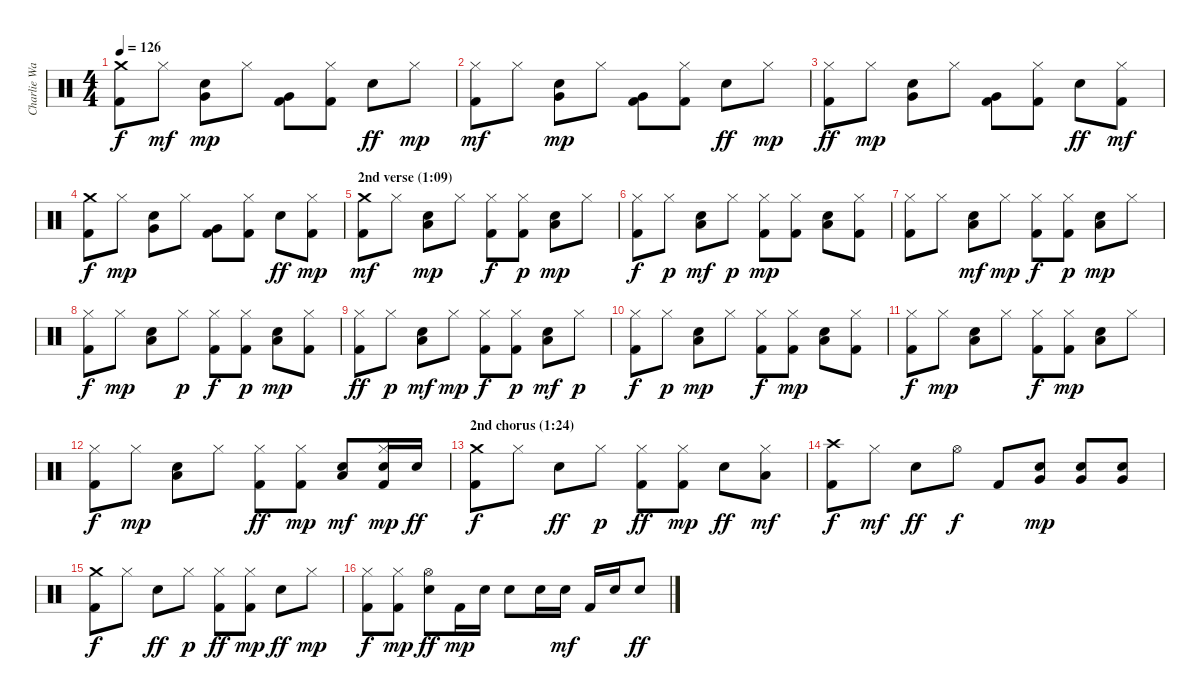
\track ("Charlie Watts" "Charlie Wa") {instrument percussion}
\staff {score}
\articulation defaults
\ts (4 4)
\tempo 126
\clef neutral
\ks c
("Kick (hit) 2" "Crash medium (hit)").8{dy f} "Hi-Hat (closed)".8{dy mf} ("Electric Snare (hit)" "Very Low Tom (hit)").8{dy mp} "Hi-Hat (closed)".8 ("Kick (hit) 2" "Very Low Tom (hit)").8 ("Kick (hit) 2" "Hi-Hat (closed)").8 "Electric Snare (hit)".8{dy ff} "Hi-Hat (closed)".8{dy mp} |
("Kick (hit) 2" "Hi-Hat (closed)").8{dy mf} "Hi-Hat (closed)".8 ("Electric Snare (hit)" "Very Low Tom (hit)").8{dy mp} "Hi-Hat (closed)".8 ("Kick (hit) 2" "Very Low Tom (hit)").8 ("Kick (hit) 2" "Hi-Hat (closed)").8 "Electric Snare (hit)".8{dy ff} "Hi-Hat (closed)".8{dy mp} |
("Kick (hit) 2" "Hi-Hat (closed)").8{dy ff} "Hi-Hat (closed)".8{dy mp} ("Electric Snare (hit)" "Very Low Tom (hit)").8 "Hi-Hat (closed)".8 ("Kick (hit) 2" "Very Low Tom (hit)").8 ("Kick (hit) 2" "Hi-Hat (closed)").8 "Electric Snare (hit)".8{dy ff} ("Kick (hit) 2" "Hi-Hat (closed)").8{dy mf} |
("Kick (hit) 2" "Crash medium (hit)").8{dy f} "Hi-Hat (closed)".8{dy mp} ("Electric Snare (hit)" "Very Low Tom (hit)").8 "Hi-Hat (closed)".8 ("Kick (hit) 2" "Very Low Tom (hit)").8 ("Kick (hit) 2" "Hi-Hat (closed)").8 "Electric Snare (hit)".8{dy ff} ("Kick (hit) 2" "Hi-Hat (closed)").8{dy mp} |
\section ("" "2nd verse (1:09)")
("Kick (hit) 2" "Crash medium (hit)").8{dy mf} "Hi-Hat (closed)".8 ("Electric Snare (hit)" "Low Tom (hit)").8{dy mp} "Hi-Hat (closed)".8 ("Kick (hit) 2" "Hi-Hat (closed)").8{dy f} ("Kick (hit) 2" "Hi-Hat (closed)").8{dy p} ("Electric Snare (hit)" "Low Tom (hit)").8{dy mp} "Hi-Hat (closed)".8 |
("Kick (hit) 2" "Hi-Hat (closed)").8{dy f} "Hi-Hat (closed)".8{dy p} ("Electric Snare (hit)" "Low Tom (hit)").8{dy mf} "Hi-Hat (closed)".8{dy p} ("Kick (hit) 2" "Hi-Hat (closed)").8{dy mp} ("Kick (hit) 2" "Hi-Hat (closed)").8 ("Electric Snare (hit)" "Low Tom (hit)").8 ("Kick (hit) 2" "Hi-Hat (closed)").8 |
("Kick (hit) 2" "Hi-Hat (closed)").8 "Hi-Hat (closed)".8 ("Electric Snare (hit)" "Low Tom (hit)").8{dy mf} "Hi-Hat (closed)".8{dy mp} ("Kick (hit) 2" "Hi-Hat (closed)").8{dy f} ("Kick (hit) 2" "Hi-Hat (closed)").8{dy p} ("Electric Snare (hit)" "Low Tom (hit)").8{dy mp} "Hi-Hat (closed)".8 |
("Kick (hit) 2" "Hi-Hat (closed)").8{dy f} "Hi-Hat (closed)".8{dy mp} ("Electric Snare (hit)" "Low Tom (hit)").8 "Hi-Hat (closed)".8{dy p} ("Kick (hit) 2" "Hi-Hat (closed)").8{dy f} ("Kick (hit) 2" "Hi-Hat (closed)").8{dy p} ("Electric Snare (hit)" "Low Tom (hit)").8{dy mp} ("Kick (hit) 2" "Hi-Hat (closed)").8 |
("Kick (hit) 2" "Hi-Hat (closed)").8{dy ff} "Hi-Hat (closed)".8{dy p} ("Electric Snare (hit)" "Low Tom (hit)").8{dy mf} "Hi-Hat (closed)".8{dy mp} ("Kick (hit) 2" "Hi-Hat (closed)").8{dy f} ("Kick (hit) 2" "Hi-Hat (closed)").8{dy p} ("Electric Snare (hit)" "Low Tom (hit)").8{dy mf} "Hi-Hat (closed)".8{dy p} |
("Kick (hit) 2" "Hi-Hat (closed)").8{dy f} "Hi-Hat (closed)".8{dy p} ("Electric Snare (hit)" "Low Tom (hit)").8{dy mp} "Hi-Hat (closed)".8 ("Kick (hit) 2" "Hi-Hat (closed)").8{dy f} ("Kick (hit) 2" "Hi-Hat (closed)").8{dy mp} ("Electric Snare (hit)" "Low Tom (hit)").8 ("Kick (hit) 2" "Hi-Hat (closed)").8 |
("Kick (hit) 2" "Hi-Hat (closed)").8{dy f} "Hi-Hat (closed)".8{dy mp} ("Electric Snare (hit)" "Low Tom (hit)").8 "Hi-Hat (closed)".8 ("Kick (hit) 2" "Hi-Hat (closed)").8{dy f} ("Kick (hit) 2" "Hi-Hat (closed)").8{dy mp} ("Electric Snare (hit)" "Low Tom (hit)").8 "Hi-Hat (closed)".8 |
("Kick (hit) 2" "Hi-Hat (closed)").8{dy f} "Hi-Hat (closed)".8{dy mp} ("Electric Snare (hit)" "Low Tom (hit)").8 "Hi-Hat (closed)".8 ("Kick (hit) 2" "Hi-Hat (closed)").8{dy ff} ("Kick (hit) 2" "Hi-Hat (closed)").8{dy mp} ("Electric Snare (hit)" "Low Tom (hit)").8{dy mf} ("Kick (hit) 2" "Electric Snare (hit)" "Hi-Hat (closed)").16{dy mp} "Electric Snare (hit)".16{dy ff} |
\section ("" "2nd chorus (1:24)")
("Kick (hit) 2" "Crash medium (hit)").8{dy f} "Hi-Hat (closed)".8 "Electric Snare (hit)".8{dy ff} "Hi-Hat (closed)".8{dy p} ("Kick (hit) 2" "Hi-Hat (closed)").8{dy ff} ("Kick (hit) 2" "Hi-Hat (closed)").8{dy mp} "Electric Snare (hit)".8{dy ff} ("Hi-Hat (closed)" "Low Tom (hit)").8{dy mf} |
("Kick (hit) 2" "Crash high (hit)").8{dy f} "Hi-Hat (closed)".8{dy mf} "Electric Snare (hit)".8{dy ff} "Hi-Hat (open)".8{dy f} "Kick (hit) 2".8 ("Electric Snare (hit)" "Very Low Tom (hit)").8{dy mp} ("Electric Snare (hit)" "Very Low Tom (hit)").8 ("Electric Snare (hit)" "Very Low Tom (hit)").8 |
("Kick (hit) 2" "Crash medium (hit)").8{dy f} "Hi-Hat (closed)".8 "Electric Snare (hit)".8{dy ff} "Hi-Hat (closed)".8{dy p} ("Kick (hit) 2" "Hi-Hat (closed)").8{dy ff} ("Kick (hit) 2" "Hi-Hat (closed)").8{dy mp} "Electric Snare (hit)".8{dy ff} "Hi-Hat (closed)".8{dy mp} |
("Kick (hit) 2" "Hi-Hat (closed)").8{dy f} ("Kick (hit) 2" "Hi-Hat (closed)").8{dy mp} ("Electric Snare (hit)" "Hi-Hat (open)").8{dy ff} "Kick (hit) 2".16{dy mp} "Electric Snare (hit)".16 "Electric Snare (hit)".8 "Electric Snare (hit)".16 "Electric Snare (hit)".16{dy mf} "Kick (hit) 2".16 "Electric Snare (hit)".16 "Electric Snare (hit)".8{dy ff}
